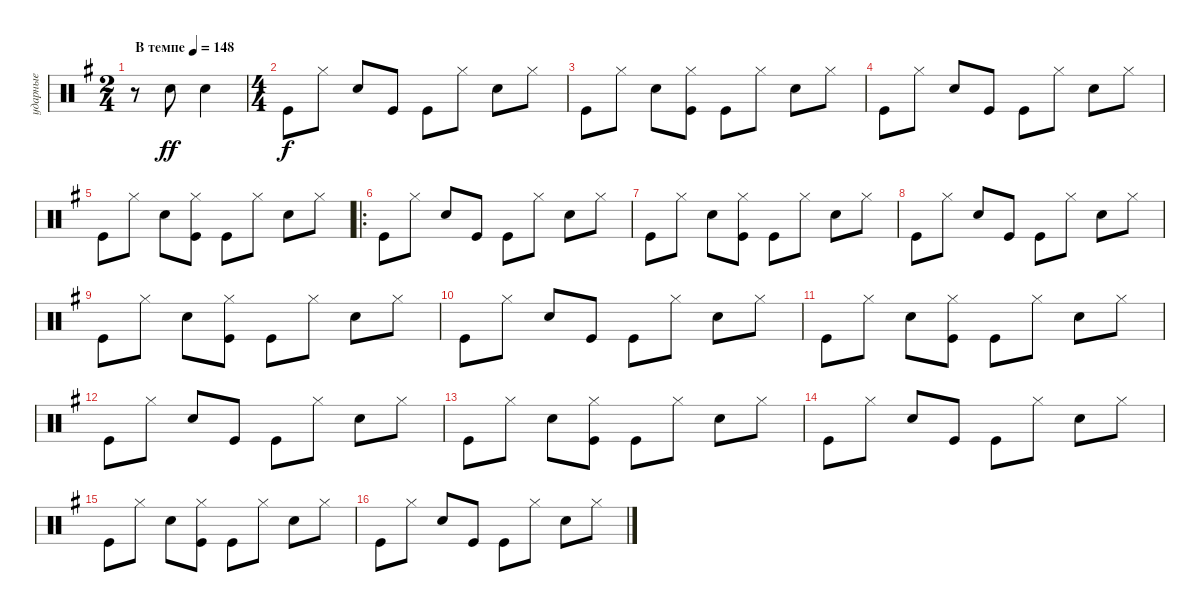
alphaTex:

\track ("ударные" "ударные") {instrument percussion}
\staff {score}
\articulation defaults
\ts (2 4)
\tempo (148 "В темпе")
\clef neutral
\ks g
r.8{dy ff} "Snare (hit) 2".8 "Snare (hit) 2".4 |
\ts (4 4)
"Kick (hit)".8{dy f} "Hi-Hat (closed)".8 "Snare (hit) 2".8 "Kick (hit)".8 "Kick (hit)".8 "Hi-Hat (closed)".8 "Snare (hit) 2".8 "Hi-Hat (closed)".8 |
"Kick (hit)".8 "Hi-Hat (closed)".8 "Snare (hit) 2".8 ("Kick (hit)" "Hi-Hat (closed)").8 "Kick (hit)".8 "Hi-Hat (closed)".8 "Snare (hit) 2".8 "Hi-Hat (closed)".8 |
"Kick (hit)".8 "Hi-Hat (closed)".8 "Snare (hit) 2".8 "Kick (hit)".8 "Kick (hit)".8 "Hi-Hat (closed)".8 "Snare (hit) 2".8 "Hi-Hat (closed)".8 |
"Kick (hit)".8 "Hi-Hat (closed)".8 "Snare (hit) 2".8 ("Kick (hit)" "Hi-Hat (closed)").8 "Kick (hit)".8 "Hi-Hat (closed)".8 "Snare (hit) 2".8 "Hi-Hat (closed)".8 |
\ro "Kick (hit)".8 "Hi-Hat (closed)".8 "Snare (hit) 2".8 "Kick (hit)".8 "Kick (hit)".8 "Hi-Hat (closed)".8 "Snare (hit) 2".8 "Hi-Hat (closed)".8
|
"Kick (hit)".8 "Hi-Hat (closed)".8 "Snare (hit) 2".8 ("Kick (hit)" "Hi-Hat (closed)").8 "Kick (hit)".8 "Hi-Hat (closed)".8 "Snare (hit) 2".8 "Hi-Hat (closed)".8 |
"Kick (hit)".8 "Hi-Hat (closed)".8 "Snare (hit) 2".8 "Kick (hit)".8 "Kick (hit)".8 "Hi-Hat (closed)".8 "Snare (hit) 2".8 "Hi-Hat (closed)".8 |
"Kick (hit)".8 "Hi-Hat (closed)".8 "Snare (hit) 2".8 ("Kick (hit)" "Hi-Hat (closed)").8 "Kick (hit)".8 "Hi-Hat (closed)".8 "Snare (hit) 2".8 "Hi-Hat (closed)".8 |
"Kick (hit)".8 "Hi-Hat (closed)".8 "Snare (hit) 2".8 "Kick (hit)".8 "Kick (hit)".8 "Hi-Hat (closed)".8 "Snare (hit) 2".8 "Hi-Hat (closed)".8 |
"Kick (hit)".8 "Hi-Hat (closed)".8 "Snare (hit) 2".8 ("Kick (hit)" "Hi-Hat (closed)").8 "Kick (hit)".8 "Hi-Hat (closed)".8 "Snare (hit) 2".8 "Hi-Hat (closed)".8 |
"Kick (hit)".8 "Hi-Hat (closed)".8 "Snare (hit) 2".8 "Kick (hit)".8 "Kick (hit)".8 "Hi-Hat (closed)".8 "Snare (hit) 2".8 "Hi-Hat (closed)".8 |
"Kick (hit)".8 "Hi-Hat (closed)".8 "Snare (hit) 2".8 ("Kick (hit)" "Hi-Hat (closed)").8 "Kick (hit)".8 "Hi-Hat (closed)".8 "Snare (hit) 2".8 "Hi-Hat (closed)".8 |
"Kick (hit)".8 "Hi-Hat (closed)".8 "Snare (hit) 2".8 "Kick (hit)".8 "Kick (hit)".8 "Hi-Hat (closed)".8 "Snare (hit) 2".8 "Hi-Hat (closed)".8 |
"Kick (hit)".8 "Hi-Hat (closed)".8 "Snare (hit) 2".8 ("Kick (hit)" "Hi-Hat (closed)").8 "Kick (hit)".8 "Hi-Hat (closed)".8 "Snare (hit) 2".8 "Hi-Hat (closed)".8 |
"Kick (hit)".8 "Hi-Hat (closed)".8 "Snare (hit) 2".8 "Kick (hit)".8 "Kick (hit)".8 "Hi-Hat (closed)".8 "Snare (hit) 2".8 "Hi-Hat (closed)".8
